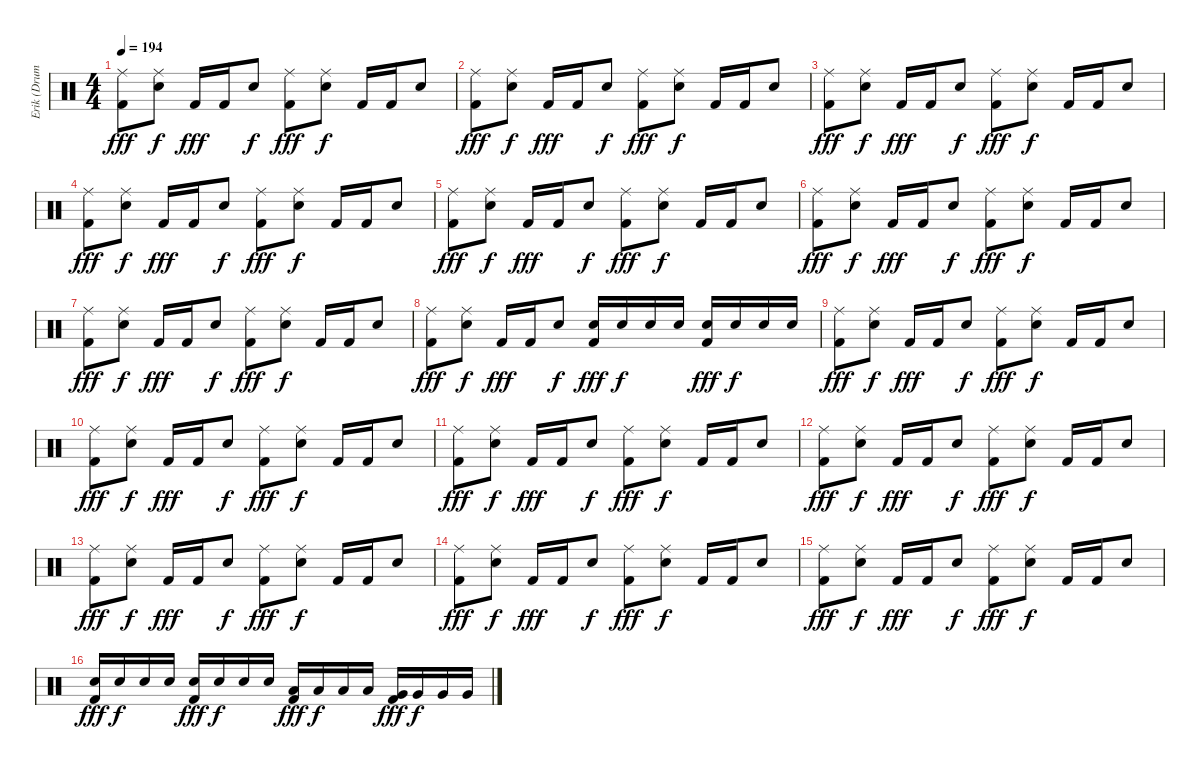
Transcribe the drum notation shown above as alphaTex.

\track ("Erik (Drums)" "Erik (Drum") {instrument percussion}
\staff {score}
\articulation defaults
\ts (4 4)
\tempo 194
\clef neutral
\ks c
("Ride (middle)" "Kick (hit) 2").8{dy fff} ("Ride (middle)" "Electric Snare (hit)").8{dy f} "Kick (hit) 2".16{dy fff} "Kick (hit) 2".16 "Electric Snare (hit)".8{dy f} ("Ride (middle)" "Kick (hit) 2").8{dy fff} ("Ride (middle)" "Electric Snare (hit)").8{dy f} "Kick (hit) 2".16 "Kick (hit) 2".16 "Electric Snare (hit)".8 |
("Ride (middle)" "Kick (hit) 2").8{dy fff} ("Ride (middle)" "Electric Snare (hit)").8{dy f} "Kick (hit) 2".16{dy fff} "Kick (hit) 2".16 "Electric Snare (hit)".8{dy f} ("Ride (middle)" "Kick (hit) 2").8{dy fff} ("Ride (middle)" "Electric Snare (hit)").8{dy f} "Kick (hit) 2".16 "Kick (hit) 2".16 "Electric Snare (hit)".8 |
("Ride (middle)" "Kick (hit) 2").8{dy fff} ("Ride (middle)" "Electric Snare (hit)").8{dy f} "Kick (hit) 2".16{dy fff} "Kick (hit) 2".16 "Electric Snare (hit)".8{dy f} ("Ride (middle)" "Kick (hit) 2").8{dy fff} ("Ride (middle)" "Electric Snare (hit)").8{dy f} "Kick (hit) 2".16 "Kick (hit) 2".16 "Electric Snare (hit)".8 |
("Ride (middle)" "Kick (hit) 2").8{dy fff} ("Ride (middle)" "Electric Snare (hit)").8{dy f} "Kick (hit) 2".16{dy fff} "Kick (hit) 2".16 "Electric Snare (hit)".8{dy f} ("Ride (middle)" "Kick (hit) 2").8{dy fff} ("Ride (middle)" "Electric Snare (hit)").8{dy f} "Kick (hit) 2".16 "Kick (hit) 2".16 "Electric Snare (hit)".8 |
("Ride (middle)" "Kick (hit) 2").8{dy fff} ("Ride (middle)" "Electric Snare (hit)").8{dy f} "Kick (hit) 2".16{dy fff} "Kick (hit) 2".16 "Electric Snare (hit)".8{dy f} ("Ride (middle)" "Kick (hit) 2").8{dy fff} ("Ride (middle)" "Electric Snare (hit)").8{dy f} "Kick (hit) 2".16 "Kick (hit) 2".16 "Electric Snare (hit)".8 |
("Ride (middle)" "Kick (hit) 2").8{dy fff} ("Ride (middle)" "Electric Snare (hit)").8{dy f} "Kick (hit) 2".16{dy fff} "Kick (hit) 2".16 "Electric Snare (hit)".8{dy f} ("Ride (middle)" "Kick (hit) 2").8{dy fff} ("Ride (middle)" "Electric Snare (hit)").8{dy f} "Kick (hit) 2".16 "Kick (hit) 2".16 "Electric Snare (hit)".8 |
("Ride (middle)" "Kick (hit) 2").8{dy fff} ("Ride (middle)" "Electric Snare (hit)").8{dy f} "Kick (hit) 2".16{dy fff} "Kick (hit) 2".16 "Electric Snare (hit)".8{dy f} ("Ride (middle)" "Kick (hit) 2").8{dy fff} ("Ride (middle)" "Electric Snare (hit)").8{dy f} "Kick (hit) 2".16 "Kick (hit) 2".16 "Electric Snare (hit)".8 |
("Ride (middle)" "Kick (hit) 2").8{dy fff} ("Ride (middle)" "Electric Snare (hit)").8{dy f} "Kick (hit) 2".16{dy fff} "Kick (hit) 2".16 "Electric Snare (hit)".8{dy f} ("Electric Snare (hit)" "Kick (hit) 2").16{dy fff} "Electric Snare (hit)".16{dy f} "Electric Snare (hit)".16 "Electric Snare (hit)".16 ("Electric Snare (hit)" "Kick (hit) 2").16{dy fff} "Electric Snare (hit)".16{dy f} "Electric Snare (hit)".16 "Electric Snare (hit)".16 |
("Ride (middle)" "Kick (hit) 2").8{dy fff} ("Ride (middle)" "Electric Snare (hit)").8{dy f} "Kick (hit) 2".16{dy fff} "Kick (hit) 2".16 "Electric Snare (hit)".8{dy f} ("Ride (middle)" "Kick (hit) 2").8{dy fff} ("Ride (middle)" "Electric Snare (hit)").8{dy f} "Kick (hit) 2".16 "Kick (hit) 2".16 "Electric Snare (hit)".8 |
("Ride (middle)" "Kick (hit) 2").8{dy fff} ("Ride (middle)" "Electric Snare (hit)").8{dy f} "Kick (hit) 2".16{dy fff} "Kick (hit) 2".16 "Electric Snare (hit)".8{dy f} ("Ride (middle)" "Kick (hit) 2").8{dy fff} ("Ride (middle)" "Electric Snare (hit)").8{dy f} "Kick (hit) 2".16 "Kick (hit) 2".16 "Electric Snare (hit)".8 |
("Ride (middle)" "Kick (hit) 2").8{dy fff} ("Ride (middle)" "Electric Snare (hit)").8{dy f} "Kick (hit) 2".16{dy fff} "Kick (hit) 2".16 "Electric Snare (hit)".8{dy f} ("Ride (middle)" "Kick (hit) 2").8{dy fff} ("Ride (middle)" "Electric Snare (hit)").8{dy f} "Kick (hit) 2".16 "Kick (hit) 2".16 "Electric Snare (hit)".8 |
("Ride (middle)" "Kick (hit) 2").8{dy fff} ("Ride (middle)" "Electric Snare (hit)").8{dy f} "Kick (hit) 2".16{dy fff} "Kick (hit) 2".16 "Electric Snare (hit)".8{dy f} ("Ride (middle)" "Kick (hit) 2").8{dy fff} ("Ride (middle)" "Electric Snare (hit)").8{dy f} "Kick (hit) 2".16 "Kick (hit) 2".16 "Electric Snare (hit)".8 |
("Ride (middle)" "Kick (hit) 2").8{dy fff} ("Ride (middle)" "Electric Snare (hit)").8{dy f} "Kick (hit) 2".16{dy fff} "Kick (hit) 2".16 "Electric Snare (hit)".8{dy f} ("Ride (middle)" "Kick (hit) 2").8{dy fff} ("Ride (middle)" "Electric Snare (hit)").8{dy f} "Kick (hit) 2".16 "Kick (hit) 2".16 "Electric Snare (hit)".8 |
("Ride (middle)" "Kick (hit) 2").8{dy fff} ("Ride (middle)" "Electric Snare (hit)").8{dy f} "Kick (hit) 2".16{dy fff} "Kick (hit) 2".16 "Electric Snare (hit)".8{dy f} ("Ride (middle)" "Kick (hit) 2").8{dy fff} ("Ride (middle)" "Electric Snare (hit)").8{dy f} "Kick (hit) 2".16 "Kick (hit) 2".16 "Electric Snare (hit)".8 |
("Ride (middle)" "Kick (hit) 2").8{dy fff} ("Ride (middle)" "Electric Snare (hit)").8{dy f} "Kick (hit) 2".16{dy fff} "Kick (hit) 2".16 "Electric Snare (hit)".8{dy f} ("Ride (middle)" "Kick (hit) 2").8{dy fff} ("Ride (middle)" "Electric Snare (hit)").8{dy f} "Kick (hit) 2".16 "Kick (hit) 2".16 "Electric Snare (hit)".8 |
("Electric Snare (hit)" "Kick (hit) 2").16{dy fff} "Electric Snare (hit)".16{dy f} "Electric Snare (hit)".16 "Electric Snare (hit)".16 ("Electric Snare (hit)" "Kick (hit) 2").16{dy fff} "Electric Snare (hit)".16{dy f} "Electric Snare (hit)".16 "Electric Snare (hit)".16 ("Low Tom (hit)" "Kick (hit) 2").16{dy fff} "Low Tom (hit)".16{dy f} "Low Tom (hit)".16 "Low Tom (hit)".16 ("Very Low Tom (hit)" "Kick (hit) 2").16{dy fff} "Very Low Tom (hit)".16{dy f} "Very Low Tom (hit)".16 "Very Low Tom (hit)".16
